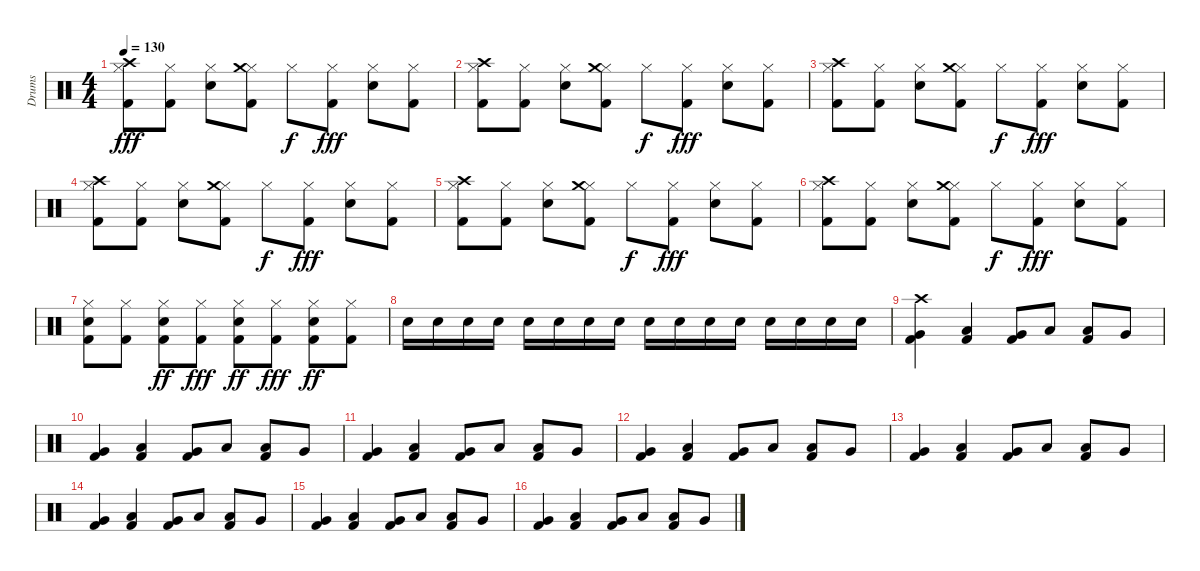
\track ("Drums" "Drums") {instrument percussion}
\staff {score}
\articulation defaults
\ts (4 4)
\tempo 130
\clef neutral
\ks c
("Hi-Hat (closed)" "Crash high (hit)" "Kick (hit) 2").8{dy fff} ("Hi-Hat (closed)" "Kick (hit) 2").8 ("Hi-Hat (closed)" "Snare (hit) 2").8 ("Hi-Hat (closed)" "Crash medium (hit)" "Kick (hit) 2").8 "Hi-Hat (closed)".8{dy f} ("Hi-Hat (closed)" "Kick (hit) 2").8{dy fff} ("Hi-Hat (closed)" "Snare (hit) 2").8 ("Hi-Hat (closed)" "Kick (hit) 2").8 |
("Hi-Hat (closed)" "Crash high (hit)" "Kick (hit) 2").8 ("Hi-Hat (closed)" "Kick (hit) 2").8 ("Hi-Hat (closed)" "Snare (hit) 2").8 ("Hi-Hat (closed)" "Crash medium (hit)" "Kick (hit) 2").8 "Hi-Hat (closed)".8{dy f} ("Hi-Hat (closed)" "Kick (hit) 2").8{dy fff} ("Hi-Hat (closed)" "Snare (hit) 2").8 ("Hi-Hat (closed)" "Kick (hit) 2").8 |
("Hi-Hat (closed)" "Crash high (hit)" "Kick (hit) 2").8 ("Hi-Hat (closed)" "Kick (hit) 2").8 ("Hi-Hat (closed)" "Snare (hit) 2").8 ("Hi-Hat (closed)" "Crash medium (hit)" "Kick (hit) 2").8 "Hi-Hat (closed)".8{dy f} ("Hi-Hat (closed)" "Kick (hit) 2").8{dy fff} ("Hi-Hat (closed)" "Snare (hit) 2").8 ("Hi-Hat (closed)" "Kick (hit) 2").8 |
("Hi-Hat (closed)" "Crash high (hit)" "Kick (hit) 2").8 ("Hi-Hat (closed)" "Kick (hit) 2").8 ("Hi-Hat (closed)" "Snare (hit) 2").8 ("Hi-Hat (closed)" "Crash medium (hit)" "Kick (hit) 2").8 "Hi-Hat (closed)".8{dy f} ("Hi-Hat (closed)" "Kick (hit) 2").8{dy fff} ("Hi-Hat (closed)" "Snare (hit) 2").8 ("Hi-Hat (closed)" "Kick (hit) 2").8 |
("Hi-Hat (closed)" "Crash high (hit)" "Kick (hit) 2").8 ("Hi-Hat (closed)" "Kick (hit) 2").8 ("Hi-Hat (closed)" "Snare (hit) 2").8 ("Hi-Hat (closed)" "Crash medium (hit)" "Kick (hit) 2").8 "Hi-Hat (closed)".8{dy f} ("Hi-Hat (closed)" "Kick (hit) 2").8{dy fff} ("Hi-Hat (closed)" "Snare (hit) 2").8 ("Hi-Hat (closed)" "Kick (hit) 2").8 |
("Hi-Hat (closed)" "Crash high (hit)" "Kick (hit) 2").8 ("Hi-Hat (closed)" "Kick (hit) 2").8 ("Hi-Hat (closed)" "Snare (hit) 2").8 ("Hi-Hat (closed)" "Crash medium (hit)" "Kick (hit) 2").8 "Hi-Hat (closed)".8{dy f} ("Hi-Hat (closed)" "Kick (hit) 2").8{dy fff} ("Hi-Hat (closed)" "Snare (hit) 2").8 ("Hi-Hat (closed)" "Kick (hit) 2").8 |
("Hi-Hat (closed)" "Snare (hit) 2" "Kick (hit) 2").8 ("Hi-Hat (closed)" "Kick (hit) 2").8 ("Hi-Hat (closed)" "Snare (hit) 2" "Kick (hit) 2").8{dy ff} ("Hi-Hat (closed)" "Kick (hit) 2").8{dy fff} ("Hi-Hat (closed)" "Snare (hit) 2" "Kick (hit) 2").8{dy ff} ("Hi-Hat (closed)" "Kick (hit) 2").8{dy fff} ("Hi-Hat (closed)" "Snare (hit) 2" "Kick (hit) 2").8{dy ff} ("Hi-Hat (closed)" "Kick (hit) 2").8 |
"Snare (hit) 2".16 "Snare (hit) 2".16 "Snare (hit) 2".16 "Snare (hit) 2".16 "Snare (hit) 2".16 "Snare (hit) 2".16 "Snare (hit) 2".16 "Snare (hit) 2".16 "Snare (hit) 2".16 "Snare (hit) 2".16 "Snare (hit) 2".16 "Snare (hit) 2".16 "Snare (hit) 2".16 "Snare (hit) 2".16 "Snare (hit) 2".16 "Snare (hit) 2".16 |
("Crash high (hit)" "Very Low Tom (hit)" "Kick (hit) 2").4 ("Low Tom (hit)" "Kick (hit) 2").4 ("Very Low Tom (hit)" "Kick (hit) 2").8 "Low Floor Tom (hit)".8 ("Low Tom (hit)" "Kick (hit) 2").8 "Very Low Tom (hit)".8 |
("Very Low Tom (hit)" "Kick (hit) 2").4 ("Low Tom (hit)" "Kick (hit) 2").4 ("Very Low Tom (hit)" "Kick (hit) 2").8 "Low Floor Tom (hit)".8 ("Low Tom (hit)" "Kick (hit) 2").8 "Very Low Tom (hit)".8 |
("Very Low Tom (hit)" "Kick (hit) 2").4 ("Low Tom (hit)" "Kick (hit) 2").4 ("Very Low Tom (hit)" "Kick (hit) 2").8 "Low Floor Tom (hit)".8 ("Low Tom (hit)" "Kick (hit) 2").8 "Very Low Tom (hit)".8 |
("Very Low Tom (hit)" "Kick (hit) 2").4 ("Low Tom (hit)" "Kick (hit) 2").4 ("Very Low Tom (hit)" "Kick (hit) 2").8 "Low Floor Tom (hit)".8 ("Low Tom (hit)" "Kick (hit) 2").8 "Very Low Tom (hit)".8 |
("Very Low Tom (hit)" "Kick (hit) 2").4 ("Low Tom (hit)" "Kick (hit) 2").4 ("Very Low Tom (hit)" "Kick (hit) 2").8 "Low Floor Tom (hit)".8 ("Low Tom (hit)" "Kick (hit) 2").8 "Very Low Tom (hit)".8 |
("Very Low Tom (hit)" "Kick (hit) 2").4 ("Low Tom (hit)" "Kick (hit) 2").4 ("Very Low Tom (hit)" "Kick (hit) 2").8 "Low Floor Tom (hit)".8 ("Low Tom (hit)" "Kick (hit) 2").8 "Very Low Tom (hit)".8 |
("Very Low Tom (hit)" "Kick (hit) 2").4 ("Low Tom (hit)" "Kick (hit) 2").4 ("Very Low Tom (hit)" "Kick (hit) 2").8 "Low Floor Tom (hit)".8 ("Low Tom (hit)" "Kick (hit) 2").8 "Very Low Tom (hit)".8 |
("Very Low Tom (hit)" "Kick (hit) 2").4 ("Low Tom (hit)" "Kick (hit) 2").4 ("Very Low Tom (hit)" "Kick (hit) 2").8 "Low Floor Tom (hit)".8 ("Low Tom (hit)" "Kick (hit) 2").8 "Very Low Tom (hit)".8
